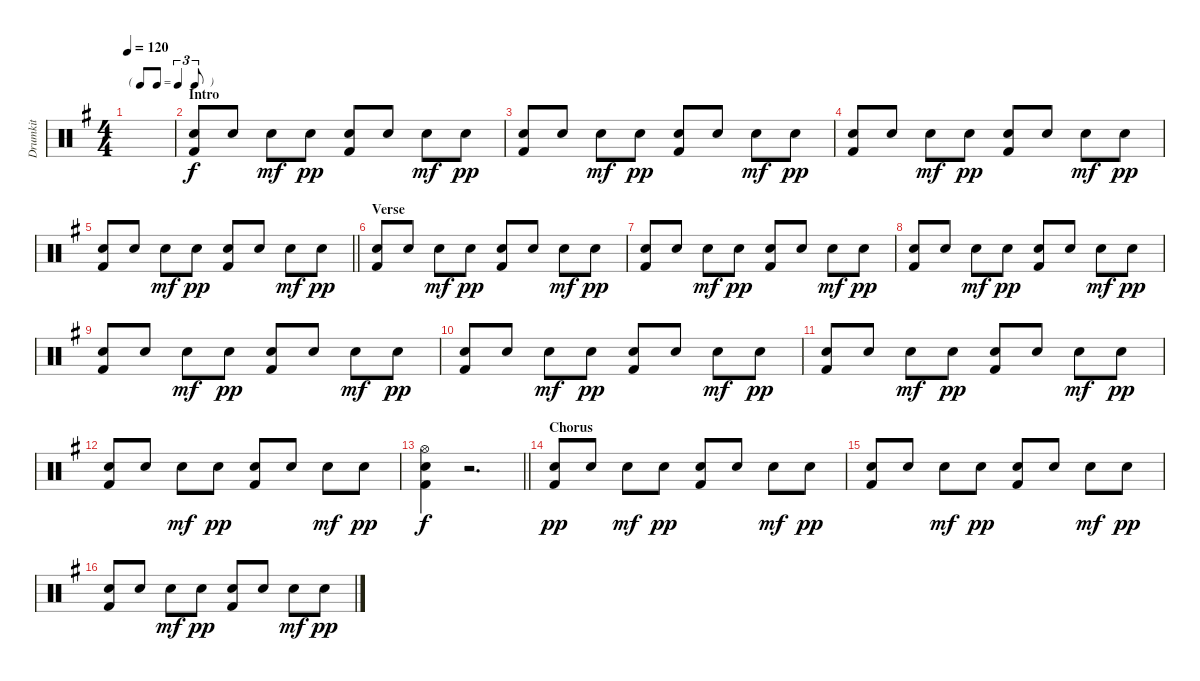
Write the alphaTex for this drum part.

\track ("Drumkit" "Drumkit") {instrument percussion}
\staff {score}
\articulation defaults
\ts (4 4)
\tf triplet8th
\tempo 120
\clef neutral
\ks g
|
\section ("" "Intro")
("Snare (hit) 2" "Kick (hit) 2").8 "Snare (hit) 2".8 "Snare (hit) 2".8{dy mf} "Snare (hit) 2".8{dy pp} ("Snare (hit) 2" "Kick (hit) 2").8 "Snare (hit) 2".8 "Snare (hit) 2".8{dy mf} "Snare (hit) 2".8{dy pp} |
("Snare (hit) 2" "Kick (hit) 2").8 "Snare (hit) 2".8 "Snare (hit) 2".8{dy mf} "Snare (hit) 2".8{dy pp} ("Snare (hit) 2" "Kick (hit) 2").8 "Snare (hit) 2".8 "Snare (hit) 2".8{dy mf} "Snare (hit) 2".8{dy pp} |
("Snare (hit) 2" "Kick (hit) 2").8 "Snare (hit) 2".8 "Snare (hit) 2".8{dy mf} "Snare (hit) 2".8{dy pp} ("Snare (hit) 2" "Kick (hit) 2").8 "Snare (hit) 2".8 "Snare (hit) 2".8{dy mf} "Snare (hit) 2".8{dy pp} |
\barLineRight lightlight
("Snare (hit) 2" "Kick (hit) 2").8 "Snare (hit) 2".8 "Snare (hit) 2".8{dy mf} "Snare (hit) 2".8{dy pp} ("Snare (hit) 2" "Kick (hit) 2").8 "Snare (hit) 2".8 "Snare (hit) 2".8{dy mf} "Snare (hit) 2".8{dy pp} |
\section ("" "Verse")
("Snare (hit) 2" "Kick (hit) 2").8 "Snare (hit) 2".8 "Snare (hit) 2".8{dy mf} "Snare (hit) 2".8{dy pp} ("Snare (hit) 2" "Kick (hit) 2").8 "Snare (hit) 2".8 "Snare (hit) 2".8{dy mf} "Snare (hit) 2".8{dy pp} |
("Snare (hit) 2" "Kick (hit) 2").8 "Snare (hit) 2".8 "Snare (hit) 2".8{dy mf} "Snare (hit) 2".8{dy pp} ("Snare (hit) 2" "Kick (hit) 2").8 "Snare (hit) 2".8 "Snare (hit) 2".8{dy mf} "Snare (hit) 2".8{dy pp} |
("Snare (hit) 2" "Kick (hit) 2").8 "Snare (hit) 2".8 "Snare (hit) 2".8{dy mf} "Snare (hit) 2".8{dy pp} ("Snare (hit) 2" "Kick (hit) 2").8 "Snare (hit) 2".8 "Snare (hit) 2".8{dy mf} "Snare (hit) 2".8{dy pp} |
("Snare (hit) 2" "Kick (hit) 2").8 "Snare (hit) 2".8 "Snare (hit) 2".8{dy mf} "Snare (hit) 2".8{dy pp} ("Snare (hit) 2" "Kick (hit) 2").8 "Snare (hit) 2".8 "Snare (hit) 2".8{dy mf} "Snare (hit) 2".8{dy pp} |
("Snare (hit) 2" "Kick (hit) 2").8 "Snare (hit) 2".8 "Snare (hit) 2".8{dy mf} "Snare (hit) 2".8{dy pp} ("Snare (hit) 2" "Kick (hit) 2").8 "Snare (hit) 2".8 "Snare (hit) 2".8{dy mf} "Snare (hit) 2".8{dy pp} |
("Snare (hit) 2" "Kick (hit) 2").8 "Snare (hit) 2".8 "Snare (hit) 2".8{dy mf} "Snare (hit) 2".8{dy pp} ("Snare (hit) 2" "Kick (hit) 2").8 "Snare (hit) 2".8 "Snare (hit) 2".8{dy mf} "Snare (hit) 2".8{dy pp} |
("Snare (hit) 2" "Kick (hit) 2").8 "Snare (hit) 2".8 "Snare (hit) 2".8{dy mf} "Snare (hit) 2".8{dy pp} ("Snare (hit) 2" "Kick (hit) 2").8 "Snare (hit) 2".8 "Snare (hit) 2".8{dy mf} "Snare (hit) 2".8{dy pp} |
\barLineRight lightlight
("Kick (hit) 2" "Snare (hit) 2" "Hi-Hat (open)").4{dy f} r.2{d} |
\section ("" "Chorus")
("Snare (hit) 2" "Kick (hit) 2").8{dy pp} "Snare (hit) 2".8 "Snare (hit) 2".8{dy mf} "Snare (hit) 2".8{dy pp} ("Snare (hit) 2" "Kick (hit) 2").8 "Snare (hit) 2".8 "Snare (hit) 2".8{dy mf} "Snare (hit) 2".8{dy pp} |
("Snare (hit) 2" "Kick (hit) 2").8 "Snare (hit) 2".8 "Snare (hit) 2".8{dy mf} "Snare (hit) 2".8{dy pp} ("Snare (hit) 2" "Kick (hit) 2").8 "Snare (hit) 2".8 "Snare (hit) 2".8{dy mf} "Snare (hit) 2".8{dy pp} |
("Snare (hit) 2" "Kick (hit) 2").8 "Snare (hit) 2".8 "Snare (hit) 2".8{dy mf} "Snare (hit) 2".8{dy pp} ("Snare (hit) 2" "Kick (hit) 2").8 "Snare (hit) 2".8 "Snare (hit) 2".8{dy mf} "Snare (hit) 2".8{dy pp}
